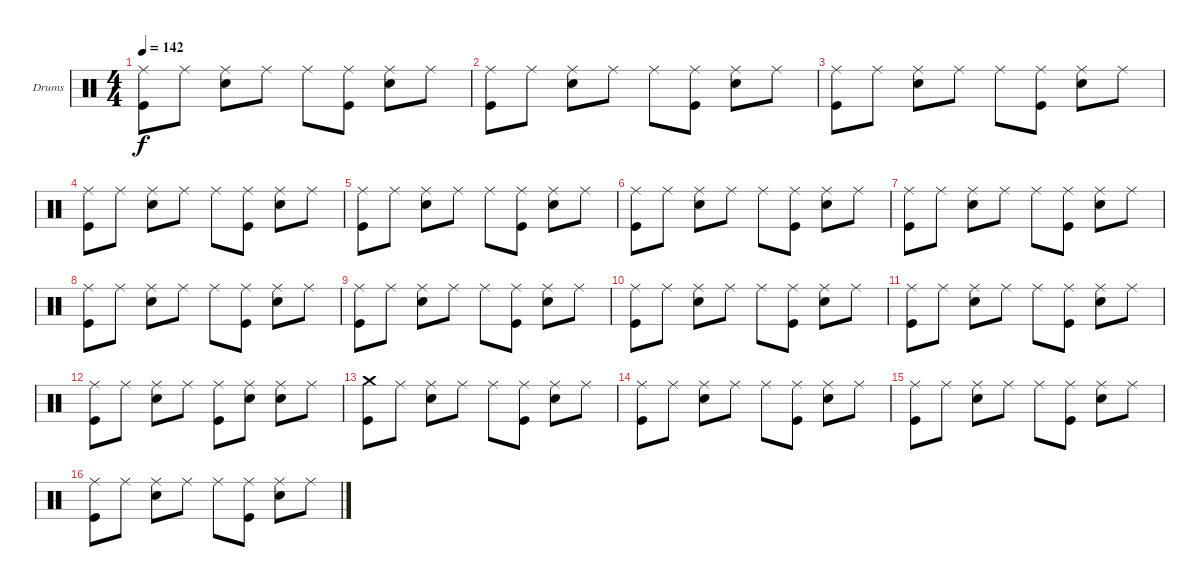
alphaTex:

\bracketExtendMode groupsimilarinstruments
\firstSystemTrackNameOrientation horizontal
\otherSystemsTrackNameOrientation horizontal
\track ("Drumkit" "Drums") {instrument percussion}
\staff {score}
\articulation defaults
\ts (4 4)
\tempo 142
\clef neutral
\ks c
("Ride (middle)" "Kick (hit)").8{dy f} "Ride (middle)".8 ("Ride (middle)" "Snare (hit) 2").8 "Ride (middle)".8 "Ride (middle)".8 ("Ride (middle)" "Kick (hit)").8 ("Ride (middle)" "Snare (hit) 2").8 "Ride (middle)".8 |
("Kick (hit)" "Ride (middle)").8 "Ride (middle)".8 ("Ride (middle)" "Snare (hit) 2").8 "Ride (middle)".8 "Ride (middle)".8 ("Ride (middle)" "Kick (hit)").8 ("Ride (middle)" "Snare (hit) 2").8 "Ride (middle)".8 |
("Ride (middle)" "Kick (hit)").8 "Ride (middle)".8 ("Ride (middle)" "Snare (hit) 2").8 "Ride (middle)".8 "Ride (middle)".8 ("Ride (middle)" "Kick (hit)").8 ("Ride (middle)" "Snare (hit) 2").8 "Ride (middle)".8 |
("Ride (middle)" "Kick (hit)").8 "Ride (middle)".8 ("Ride (middle)" "Snare (hit) 2").8 "Ride (middle)".8 "Ride (middle)".8 ("Ride (middle)" "Kick (hit)").8 ("Ride (middle)" "Snare (hit) 2").8 "Ride (middle)".8 |
("Ride (middle)" "Kick (hit)").8 "Ride (middle)".8 ("Ride (middle)" "Snare (hit) 2").8 "Ride (middle)".8 "Ride (middle)".8 ("Ride (middle)" "Kick (hit)").8 ("Ride (middle)" "Snare (hit) 2").8 "Ride (middle)".8 |
("Kick (hit)" "Ride (middle)").8 "Ride (middle)".8 ("Ride (middle)" "Snare (hit) 2").8 "Ride (middle)".8 "Ride (middle)".8 ("Ride (middle)" "Kick (hit)").8 ("Ride (middle)" "Snare (hit) 2").8 "Ride (middle)".8 |
("Ride (middle)" "Kick (hit)").8 "Ride (middle)".8 ("Ride (middle)" "Snare (hit) 2").8 "Ride (middle)".8 "Ride (middle)".8 ("Ride (middle)" "Kick (hit)").8 ("Ride (middle)" "Snare (hit) 2").8 "Ride (middle)".8 |
("Ride (middle)" "Kick (hit)").8 "Ride (middle)".8 ("Ride (middle)" "Snare (hit) 2").8 "Ride (middle)".8 "Ride (middle)".8 ("Ride (middle)" "Kick (hit)").8 ("Ride (middle)" "Snare (hit) 2").8 "Ride (middle)".8 |
("Ride (middle)" "Kick (hit)").8 "Ride (middle)".8 ("Ride (middle)" "Snare (hit) 2").8 "Ride (middle)".8 "Ride (middle)".8 ("Ride (middle)" "Kick (hit)").8 ("Ride (middle)" "Snare (hit) 2").8 "Ride (middle)".8 |
("Kick (hit)" "Ride (middle)").8 "Ride (middle)".8 ("Ride (middle)" "Snare (hit) 2").8 "Ride (middle)".8 "Ride (middle)".8 ("Ride (middle)" "Kick (hit)").8 ("Ride (middle)" "Snare (hit) 2").8 "Ride (middle)".8 |
("Ride (middle)" "Kick (hit)").8 "Ride (middle)".8 ("Ride (middle)" "Snare (hit) 2").8 "Ride (middle)".8 "Ride (middle)".8 ("Ride (middle)" "Kick (hit)").8 ("Ride (middle)" "Snare (hit) 2").8 "Ride (middle)".8 |
("Ride (middle)" "Kick (hit)").8 "Ride (middle)".8 ("Ride (middle)" "Snare (hit) 2").8 "Ride (middle)".8 ("Ride (middle)" "Kick (hit)").8 ("Ride (middle)" "Snare (hit) 2").8 ("Ride (middle)" "Snare (hit) 2").8 "Ride (middle)".8 |
("Kick (hit)" "Crash medium (hit)").8 "Ride (middle)".8 ("Ride (middle)" "Snare (hit) 2").8 "Ride (middle)".8 "Ride (middle)".8 ("Ride (middle)" "Kick (hit)").8 ("Ride (middle)" "Snare (hit) 2").8 "Ride (middle)".8 |
("Kick (hit)" "Ride (middle)").8 "Ride (middle)".8 ("Ride (middle)" "Snare (hit) 2").8 "Ride (middle)".8 "Ride (middle)".8 ("Ride (middle)" "Kick (hit)").8 ("Ride (middle)" "Snare (hit) 2").8 "Ride (middle)".8 |
("Ride (middle)" "Kick (hit)").8 "Ride (middle)".8 ("Ride (middle)" "Snare (hit) 2").8 "Ride (middle)".8 "Ride (middle)".8 ("Ride (middle)" "Kick (hit)").8 ("Ride (middle)" "Snare (hit) 2").8 "Ride (middle)".8 |
("Ride (middle)" "Kick (hit)").8 "Ride (middle)".8 ("Ride (middle)" "Snare (hit) 2").8 "Ride (middle)".8 "Ride (middle)".8 ("Ride (middle)" "Kick (hit)").8 ("Ride (middle)" "Snare (hit) 2").8 "Ride (middle)".8
